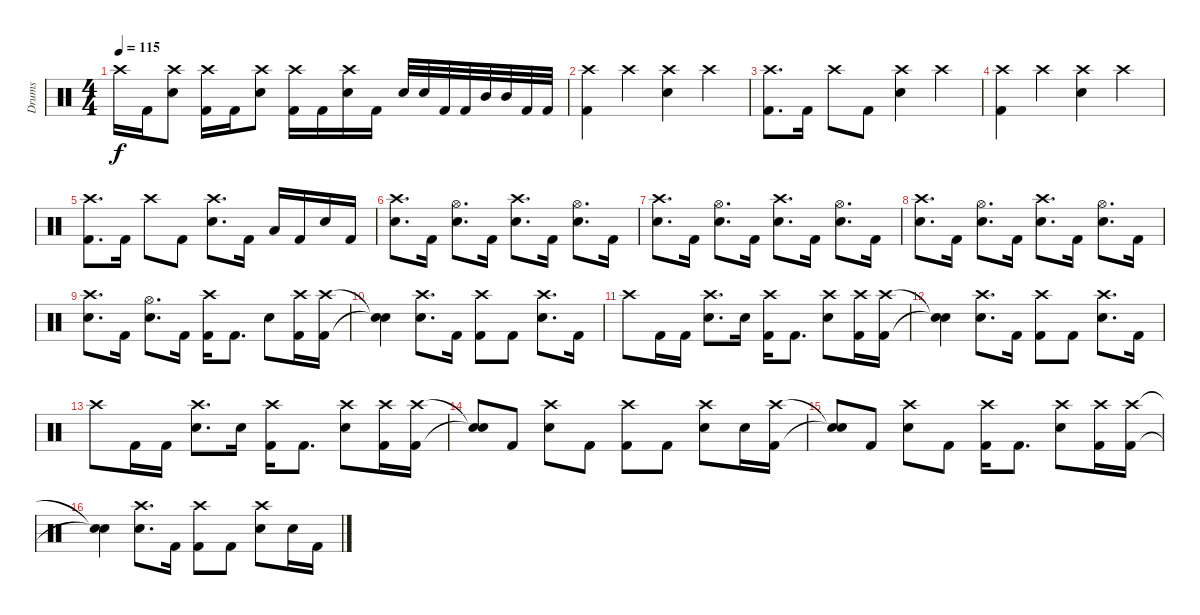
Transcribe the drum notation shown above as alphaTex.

\track ("Drums" "Drums") {instrument percussion}
\staff {score}
\articulation defaults
\ts (4 4)
\tempo 115
\clef neutral
\ks c "Crash high (hit)".16{dy f} "Kick (hit) 2".16
("Crash high (hit)" "Electric Snare (hit)").8 ("Crash high (hit)" "Kick (hit) 2").16 "Kick (hit) 2".16 ("Crash high (hit)" "Electric Snare (hit)").8 ("Crash high (hit)" "Kick (hit) 2").16 "Kick (hit) 2".16 ("Crash high (hit)" "Electric Snare (hit)").16 "Kick (hit) 2".16 "Electric Snare (hit)".32 "Electric Snare (hit)".32 "Kick (hit) 2".32 "Kick (hit) 2".32 "Mid Tom (hit)".32 "Mid Tom (hit)".32 "Kick (hit) 2".32 "Kick (hit) 2".32 |
("Crash high (hit)" "Kick (hit) 2").4 "Crash high (hit)".4 ("Crash high (hit)" "Electric Snare (hit)").4 "Crash high (hit)".4 |
("Crash high (hit)" "Kick (hit) 2").8{d} "Kick (hit) 2".16 "Crash high (hit)".8 "Kick (hit) 2".8 ("Crash high (hit)" "Electric Snare (hit)").4 "Crash high (hit)".4 |
("Crash high (hit)" "Kick (hit) 2").4 "Crash high (hit)".4 ("Crash high (hit)" "Electric Snare (hit)").4 "Crash high (hit)".4 |
("Crash high (hit)" "Kick (hit) 2").8{d} "Kick (hit) 2".16 "Crash high (hit)".8 "Kick (hit) 2".8 ("Crash high (hit)" "Electric Snare (hit)").8{d} "Kick (hit) 2".16 "Low Tom (hit)".16 "Kick (hit) 2".16 "Electric Snare (hit)".16 "Kick (hit) 2".16 |
("Crash high (hit)" "Electric Snare (hit)").8{d} "Kick (hit) 2".16 ("Hi-Hat (open)" "Electric Snare (hit)").8{d} "Kick (hit) 2".16 ("Crash high (hit)" "Electric Snare (hit)").8{d} "Kick (hit) 2".16 ("Hi-Hat (open)" "Electric Snare (hit)").8{d} "Kick (hit) 2".16 |
("Crash high (hit)" "Electric Snare (hit)").8{d} "Kick (hit) 2".16 ("Hi-Hat (open)" "Electric Snare (hit)").8{d} "Kick (hit) 2".16 ("Crash high (hit)" "Electric Snare (hit)").8{d} "Kick (hit) 2".16 ("Hi-Hat (open)" "Electric Snare (hit)").8{d} "Kick (hit) 2".16 |
("Crash high (hit)" "Electric Snare (hit)").8{d} "Kick (hit) 2".16 ("Hi-Hat (open)" "Electric Snare (hit)").8{d} "Kick (hit) 2".16 ("Crash high (hit)" "Electric Snare (hit)").8{d} "Kick (hit) 2".16 ("Hi-Hat (open)" "Electric Snare (hit)").8{d} "Kick (hit) 2".16 |
("Crash high (hit)" "Electric Snare (hit)").8{d} "Kick (hit) 2".16 ("Hi-Hat (open)" "Electric Snare (hit)").8{d} "Kick (hit) 2".16 ("Crash high (hit)" "Kick (hit) 2").16 "Kick (hit) 2".8{d} "Electric Snare (hit)".8 ("Crash high (hit)" "Kick (hit) 2").16 ("Crash high (hit)" "Kick (hit) 2").16 |
("Snare (hit)"{t} "Snare (hit)"{t}).4 ("Crash high (hit)" "Electric Snare (hit)").8{d} "Kick (hit) 2".16 ("Crash high (hit)" "Kick (hit) 2").8 "Kick (hit) 2".8 ("Crash high (hit)" "Electric Snare (hit)").8{d} "Kick (hit) 2".16 |
"Crash high (hit)".8 "Kick (hit) 2".16 "Kick (hit) 2".16 ("Crash high (hit)" "Electric Snare (hit)").8{d} "Electric Snare (hit)".16 ("Crash high (hit)" "Kick (hit) 2").16 "Kick (hit) 2".8{d} ("Crash high (hit)" "Electric Snare (hit)").8 ("Crash high (hit)" "Kick (hit) 2").16 ("Crash high (hit)" "Kick (hit) 2").16 |
("Snare (hit)"{t} "Snare (hit)"{t}).4 ("Crash high (hit)" "Electric Snare (hit)").8{d} "Kick (hit) 2".16 ("Crash high (hit)" "Kick (hit) 2").8 "Kick (hit) 2".8 ("Crash high (hit)" "Electric Snare (hit)").8{d} "Kick (hit) 2".16 |
"Crash high (hit)".8 "Kick (hit) 2".16 "Kick (hit) 2".16 ("Crash high (hit)" "Electric Snare (hit)").8{d} "Electric Snare (hit)".16 ("Crash high (hit)" "Kick (hit) 2").16 "Kick (hit) 2".8{d} ("Crash high (hit)" "Electric Snare (hit)").8 ("Crash high (hit)" "Kick (hit) 2").16 ("Crash high (hit)" "Kick (hit) 2").16 |
("Snare (hit)"{t} "Snare (hit)"{t}).8 "Kick (hit) 2".8 ("Crash high (hit)" "Electric Snare (hit)").8 "Kick (hit) 2".8 ("Crash high (hit)" "Kick (hit) 2").8 "Kick (hit) 2".8 ("Crash high (hit)" "Electric Snare (hit)").8 "Electric Snare (hit)".16 ("Crash high (hit)" "Kick (hit) 2").16 |
("Snare (hit)"{t} "Snare (hit)"{t}).8 "Kick (hit) 2".8 ("Crash high (hit)" "Electric Snare (hit)").8 "Kick (hit) 2".8 ("Crash high (hit)" "Kick (hit) 2").16 "Kick (hit) 2".8{d} ("Crash high (hit)" "Electric Snare (hit)").8 ("Crash high (hit)" "Kick (hit) 2").16 ("Crash high (hit)" "Kick (hit) 2").16 |
("Snare (hit)"{t} "Snare (hit)"{t}).4 ("Crash high (hit)" "Electric Snare (hit)").8{d} "Kick (hit) 2".16 ("Crash high (hit)" "Kick (hit) 2").8 "Kick (hit) 2".8 ("Crash high (hit)" "Electric Snare (hit)").8 "Electric Snare (hit)".16 "Kick (hit) 2".16
